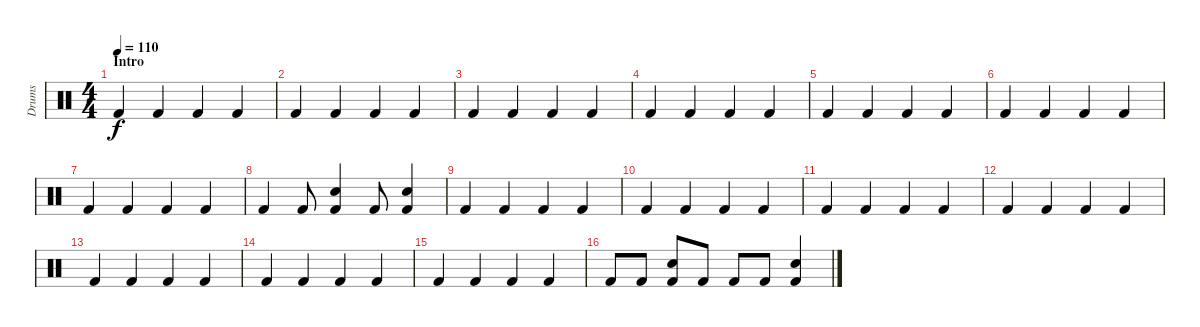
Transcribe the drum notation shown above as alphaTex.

\track ("Drums" "Drums") {instrument percussion}
\staff {score}
\articulation defaults
\ts (4 4)
\section ("" "Intro")
\tempo 110
\clef neutral
\ks c "Kick (hit) 2".4{dy f} "Kick (hit) 2".4 "Kick (hit) 2".4 "Kick (hit) 2".4
|
"Kick (hit) 2".4 "Kick (hit) 2".4 "Kick (hit) 2".4 "Kick (hit) 2".4 |
"Kick (hit) 2".4 "Kick (hit) 2".4 "Kick (hit) 2".4 "Kick (hit) 2".4 |
"Kick (hit) 2".4 "Kick (hit) 2".4 "Kick (hit) 2".4 "Kick (hit) 2".4 |
"Kick (hit) 2".4 "Kick (hit) 2".4 "Kick (hit) 2".4 "Kick (hit) 2".4 |
"Kick (hit) 2".4 "Kick (hit) 2".4 "Kick (hit) 2".4 "Kick (hit) 2".4 |
"Kick (hit) 2".4 "Kick (hit) 2".4 "Kick (hit) 2".4 "Kick (hit) 2".4 |
"Kick (hit) 2".4 "Kick (hit) 2".8 ("Electric Snare (hit)" "Kick (hit) 2").4 "Kick (hit) 2".8 ("Electric Snare (hit)" "Kick (hit) 2").4 |
"Kick (hit) 2".4 "Kick (hit) 2".4 "Kick (hit) 2".4 "Kick (hit) 2".4 |
"Kick (hit) 2".4 "Kick (hit) 2".4 "Kick (hit) 2".4 "Kick (hit) 2".4 |
"Kick (hit) 2".4 "Kick (hit) 2".4 "Kick (hit) 2".4 "Kick (hit) 2".4 |
"Kick (hit) 2".4 "Kick (hit) 2".4 "Kick (hit) 2".4 "Kick (hit) 2".4 |
"Kick (hit) 2".4 "Kick (hit) 2".4 "Kick (hit) 2".4 "Kick (hit) 2".4 |
"Kick (hit) 2".4 "Kick (hit) 2".4 "Kick (hit) 2".4 "Kick (hit) 2".4 |
"Kick (hit) 2".4 "Kick (hit) 2".4 "Kick (hit) 2".4 "Kick (hit) 2".4 |
"Kick (hit) 2".8 "Kick (hit) 2".8 ("Electric Snare (hit)" "Kick (hit) 2").8 "Kick (hit) 2".8 "Kick (hit) 2".8 "Kick (hit) 2".8 ("Electric Snare (hit)" "Kick (hit) 2").4
